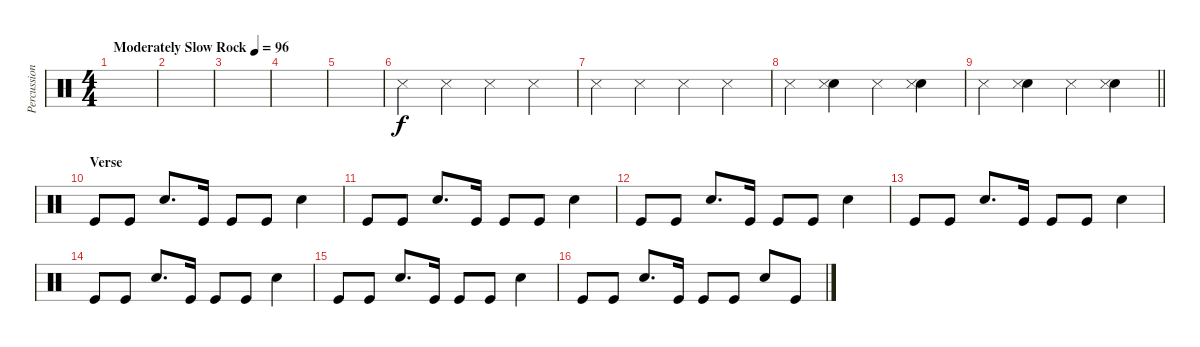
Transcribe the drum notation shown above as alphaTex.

\track ("Percussion" "Percussion") {instrument percussion}
\staff {score}
\articulation defaults
\ts (4 4)
\tempo (96 "Moderately Slow Rock")
\clef neutral
\ks c
|
|
|
|
|
"Metronome (hit)".4 "Metronome (hit)".4 "Metronome (hit)".4 "Metronome (hit)".4 |
"Metronome (hit)".4 "Metronome (hit)".4 "Metronome (hit)".4 "Metronome (hit)".4 |
"Metronome (hit)".4 ("Electric Snare (hit)" "Metronome (hit)").4 "Metronome (hit)".4 ("Electric Snare (hit)" "Metronome (hit)").4 |
\barLineRight lightlight "Metronome (hit)".4
("Electric Snare (hit)" "Metronome (hit)").4 "Metronome (hit)".4 ("Electric Snare (hit)" "Metronome (hit)").4 |
\section ("" "Verse")
"Kick (hit)".8 "Kick (hit)".8 "Electric Snare (hit)".8{d} "Kick (hit)".16 "Kick (hit)".8 "Kick (hit)".8 "Electric Snare (hit)".4 |
"Kick (hit)".8 "Kick (hit)".8 "Electric Snare (hit)".8{d} "Kick (hit)".16 "Kick (hit)".8 "Kick (hit)".8 "Electric Snare (hit)".4 |
"Kick (hit)".8 "Kick (hit)".8 "Electric Snare (hit)".8{d} "Kick (hit)".16 "Kick (hit)".8 "Kick (hit)".8 "Electric Snare (hit)".4 |
"Kick (hit)".8 "Kick (hit)".8 "Electric Snare (hit)".8{d} "Kick (hit)".16 "Kick (hit)".8 "Kick (hit)".8 "Electric Snare (hit)".4 |
"Kick (hit)".8 "Kick (hit)".8 "Electric Snare (hit)".8{d} "Kick (hit)".16 "Kick (hit)".8 "Kick (hit)".8 "Electric Snare (hit)".4 |
"Kick (hit)".8 "Kick (hit)".8 "Electric Snare (hit)".8{d} "Kick (hit)".16 "Kick (hit)".8 "Kick (hit)".8 "Electric Snare (hit)".4 |
"Kick (hit)".8 "Kick (hit)".8 "Electric Snare (hit)".8{d} "Kick (hit)".16 "Kick (hit)".8 "Kick (hit)".8 "Electric Snare (hit)".8 "Kick (hit)".8
